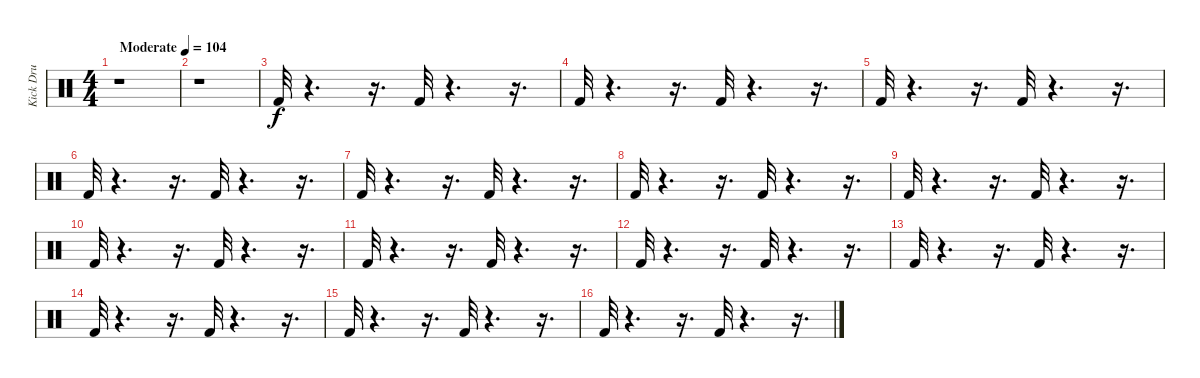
\track ("  Kick Drum 1" "  Kick Dru") {instrument percussion}
\staff {score}
\articulation defaults
\ts (4 4)
\tempo (104 "Moderate")
\clef neutral
\ks c
r.1{dy f} |
r.1 |
"Kick (hit) 2".32 r.4{d} r.16{d} "Kick (hit) 2".32 r.4{d} r.16{d} |
"Kick (hit) 2".32 r.4{d} r.16{d} "Kick (hit) 2".32 r.4{d} r.16{d} |
"Kick (hit) 2".32 r.4{d} r.16{d} "Kick (hit) 2".32 r.4{d} r.16{d} |
"Kick (hit) 2".32 r.4{d} r.16{d} "Kick (hit) 2".32 r.4{d} r.16{d} |
"Kick (hit) 2".32 r.4{d} r.16{d} "Kick (hit) 2".32 r.4{d} r.16{d} |
"Kick (hit) 2".32 r.4{d} r.16{d} "Kick (hit) 2".32 r.4{d} r.16{d} |
"Kick (hit) 2".32 r.4{d} r.16{d} "Kick (hit) 2".32 r.4{d} r.16{d} |
"Kick (hit) 2".32 r.4{d} r.16{d} "Kick (hit) 2".32 r.4{d} r.16{d} |
"Kick (hit) 2".32 r.4{d} r.16{d} "Kick (hit) 2".32 r.4{d} r.16{d} |
"Kick (hit) 2".32 r.4{d} r.16{d} "Kick (hit) 2".32 r.4{d} r.16{d} |
"Kick (hit) 2".32 r.4{d} r.16{d} "Kick (hit) 2".32 r.4{d} r.16{d} |
"Kick (hit) 2".32 r.4{d} r.16{d} "Kick (hit) 2".32 r.4{d} r.16{d} |
"Kick (hit) 2".32 r.4{d} r.16{d} "Kick (hit) 2".32 r.4{d} r.16{d} |
"Kick (hit) 2".32 r.4{d} r.16{d} "Kick (hit) 2".32 r.4{d} r.16{d}
